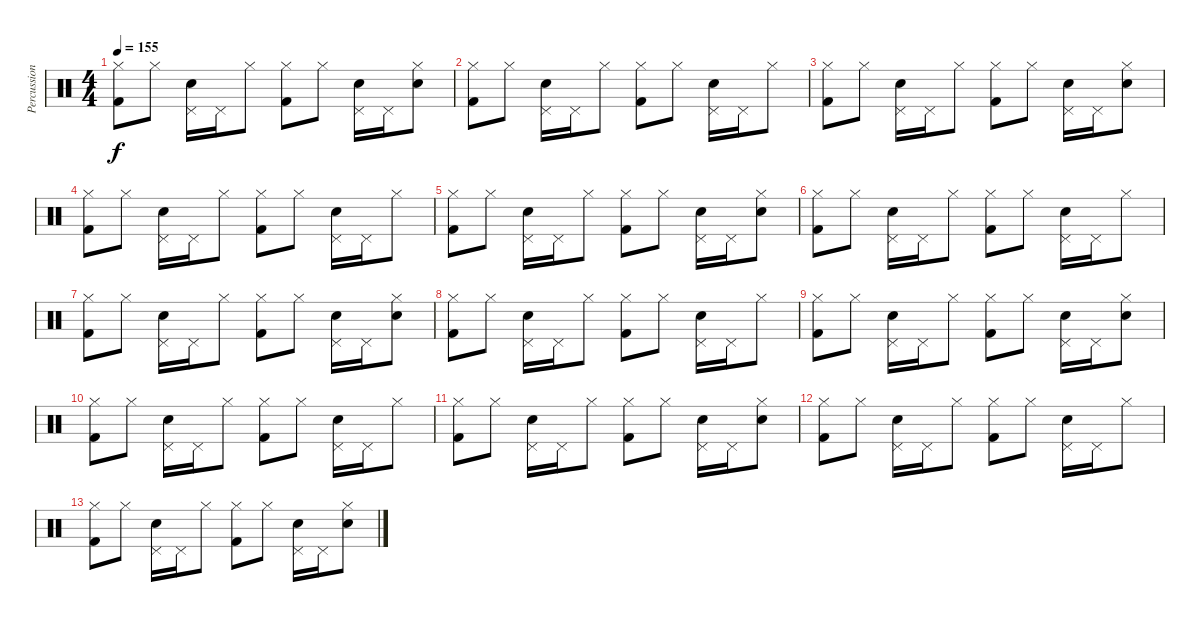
\track ("Percussions" "Percussion") {instrument percussion}
\staff {score}
\articulation defaults
\ts (4 4)
\tempo 155
\clef neutral
\ks c
("Kick (hit) 2" "Hi-Hat (closed)").8{dy f} "Hi-Hat (closed)".8 ("Electric Snare (hit)" "Pedal Hi-Hat (hit)").16 "Pedal Hi-Hat (hit)".16 "Hi-Hat (closed)".8 ("Kick (hit) 2" "Hi-Hat (closed)").8 "Hi-Hat (closed)".8 ("Electric Snare (hit)" "Pedal Hi-Hat (hit)").16 "Pedal Hi-Hat (hit)".16 ("Electric Snare (hit)" "Hi-Hat (closed)").8 |
("Kick (hit) 2" "Hi-Hat (closed)").8 "Hi-Hat (closed)".8 ("Electric Snare (hit)" "Pedal Hi-Hat (hit)").16 "Pedal Hi-Hat (hit)".16 "Hi-Hat (closed)".8 ("Kick (hit) 2" "Hi-Hat (closed)").8 "Hi-Hat (closed)".8 ("Electric Snare (hit)" "Pedal Hi-Hat (hit)").16 "Pedal Hi-Hat (hit)".16 "Hi-Hat (closed)".8 |
("Kick (hit) 2" "Hi-Hat (closed)").8 "Hi-Hat (closed)".8 ("Electric Snare (hit)" "Pedal Hi-Hat (hit)").16 "Pedal Hi-Hat (hit)".16 "Hi-Hat (closed)".8 ("Kick (hit) 2" "Hi-Hat (closed)").8 "Hi-Hat (closed)".8 ("Electric Snare (hit)" "Pedal Hi-Hat (hit)").16 "Pedal Hi-Hat (hit)".16 ("Electric Snare (hit)" "Hi-Hat (closed)").8 |
("Kick (hit) 2" "Hi-Hat (closed)").8 "Hi-Hat (closed)".8 ("Electric Snare (hit)" "Pedal Hi-Hat (hit)").16 "Pedal Hi-Hat (hit)".16 "Hi-Hat (closed)".8 ("Kick (hit) 2" "Hi-Hat (closed)").8 "Hi-Hat (closed)".8 ("Electric Snare (hit)" "Pedal Hi-Hat (hit)").16 "Pedal Hi-Hat (hit)".16 "Hi-Hat (closed)".8 |
("Kick (hit) 2" "Hi-Hat (closed)").8 "Hi-Hat (closed)".8 ("Electric Snare (hit)" "Pedal Hi-Hat (hit)").16 "Pedal Hi-Hat (hit)".16 "Hi-Hat (closed)".8 ("Kick (hit) 2" "Hi-Hat (closed)").8 "Hi-Hat (closed)".8 ("Electric Snare (hit)" "Pedal Hi-Hat (hit)").16 "Pedal Hi-Hat (hit)".16 ("Electric Snare (hit)" "Hi-Hat (closed)").8 |
("Kick (hit) 2" "Hi-Hat (closed)").8 "Hi-Hat (closed)".8 ("Electric Snare (hit)" "Pedal Hi-Hat (hit)").16 "Pedal Hi-Hat (hit)".16 "Hi-Hat (closed)".8 ("Kick (hit) 2" "Hi-Hat (closed)").8 "Hi-Hat (closed)".8 ("Electric Snare (hit)" "Pedal Hi-Hat (hit)").16 "Pedal Hi-Hat (hit)".16 "Hi-Hat (closed)".8 |
("Kick (hit) 2" "Hi-Hat (closed)").8 "Hi-Hat (closed)".8 ("Electric Snare (hit)" "Pedal Hi-Hat (hit)").16 "Pedal Hi-Hat (hit)".16 "Hi-Hat (closed)".8 ("Kick (hit) 2" "Hi-Hat (closed)").8 "Hi-Hat (closed)".8 ("Electric Snare (hit)" "Pedal Hi-Hat (hit)").16 "Pedal Hi-Hat (hit)".16 ("Electric Snare (hit)" "Hi-Hat (closed)").8 |
("Kick (hit) 2" "Hi-Hat (closed)").8 "Hi-Hat (closed)".8 ("Electric Snare (hit)" "Pedal Hi-Hat (hit)").16 "Pedal Hi-Hat (hit)".16 "Hi-Hat (closed)".8 ("Kick (hit) 2" "Hi-Hat (closed)").8 "Hi-Hat (closed)".8 ("Electric Snare (hit)" "Pedal Hi-Hat (hit)").16 "Pedal Hi-Hat (hit)".16 "Hi-Hat (closed)".8 |
("Kick (hit) 2" "Hi-Hat (closed)").8 "Hi-Hat (closed)".8 ("Electric Snare (hit)" "Pedal Hi-Hat (hit)").16 "Pedal Hi-Hat (hit)".16 "Hi-Hat (closed)".8 ("Kick (hit) 2" "Hi-Hat (closed)").8 "Hi-Hat (closed)".8 ("Electric Snare (hit)" "Pedal Hi-Hat (hit)").16 "Pedal Hi-Hat (hit)".16 ("Electric Snare (hit)" "Hi-Hat (closed)").8 |
("Kick (hit) 2" "Hi-Hat (closed)").8 "Hi-Hat (closed)".8 ("Electric Snare (hit)" "Pedal Hi-Hat (hit)").16 "Pedal Hi-Hat (hit)".16 "Hi-Hat (closed)".8 ("Kick (hit) 2" "Hi-Hat (closed)").8 "Hi-Hat (closed)".8 ("Electric Snare (hit)" "Pedal Hi-Hat (hit)").16 "Pedal Hi-Hat (hit)".16 "Hi-Hat (closed)".8 |
("Kick (hit) 2" "Hi-Hat (closed)").8 "Hi-Hat (closed)".8 ("Electric Snare (hit)" "Pedal Hi-Hat (hit)").16 "Pedal Hi-Hat (hit)".16 "Hi-Hat (closed)".8 ("Kick (hit) 2" "Hi-Hat (closed)").8 "Hi-Hat (closed)".8 ("Electric Snare (hit)" "Pedal Hi-Hat (hit)").16 "Pedal Hi-Hat (hit)".16 ("Electric Snare (hit)" "Hi-Hat (closed)").8 |
("Kick (hit) 2" "Hi-Hat (closed)").8 "Hi-Hat (closed)".8 ("Electric Snare (hit)" "Pedal Hi-Hat (hit)").16 "Pedal Hi-Hat (hit)".16 "Hi-Hat (closed)".8 ("Kick (hit) 2" "Hi-Hat (closed)").8 "Hi-Hat (closed)".8 ("Electric Snare (hit)" "Pedal Hi-Hat (hit)").16 "Pedal Hi-Hat (hit)".16 "Hi-Hat (closed)".8 |
("Kick (hit) 2" "Hi-Hat (closed)").8 "Hi-Hat (closed)".8 ("Electric Snare (hit)" "Pedal Hi-Hat (hit)").16 "Pedal Hi-Hat (hit)".16 "Hi-Hat (closed)".8 ("Kick (hit) 2" "Hi-Hat (closed)").8 "Hi-Hat (closed)".8 ("Electric Snare (hit)" "Pedal Hi-Hat (hit)").16 "Pedal Hi-Hat (hit)".16 ("Electric Snare (hit)" "Hi-Hat (closed)").8
